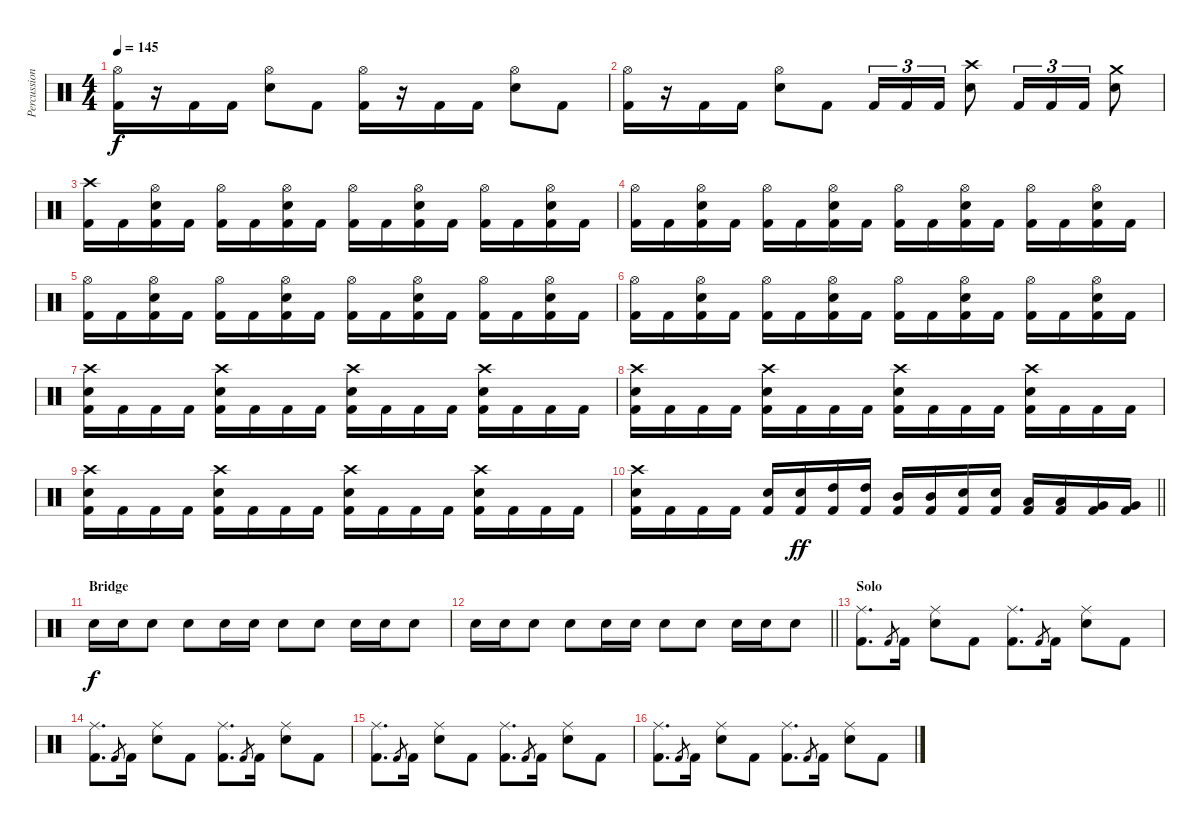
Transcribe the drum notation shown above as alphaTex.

\track ("Percussioni" "Percussion") {instrument percussion}
\staff {score}
\articulation defaults
\ts (4 4)
\tempo 145
\clef neutral
\ks c
("Hi-Hat (open)" "Kick (hit) 2").16{dy f} r.16 "Kick (hit) 2".16 "Kick (hit) 2".16 ("Hi-Hat (open)" "Snare (hit) 2").8 "Kick (hit) 2".8 ("Hi-Hat (open)" "Kick (hit) 2").16 r.16 "Kick (hit) 2".16 "Kick (hit) 2".16 ("Hi-Hat (open)" "Snare (hit) 2").8 "Kick (hit) 2".8 |
("Hi-Hat (open)" "Kick (hit) 2").16 r.16 "Kick (hit) 2".16 "Kick (hit) 2".16 ("Hi-Hat (open)" "Snare (hit) 2").8 "Kick (hit) 2".8 "Kick (hit) 2".16{tu (3 2)} "Kick (hit) 2".16{tu (3 2)} "Kick (hit) 2".16{tu (3 2)} ("Crash high (hit)" "Snare (hit) 2").8 "Kick (hit) 2".16{tu (3 2)} "Kick (hit) 2".16{tu (3 2)} "Kick (hit) 2".16{tu (3 2)} ("Crash medium (hit)" "Snare (hit) 2").8 |
("Crash high (hit)" "Kick (hit) 2").16 "Kick (hit) 2".16 ("Hi-Hat (open)" "Kick (hit) 2" "Snare (hit) 2").16 "Kick (hit) 2".16 ("Hi-Hat (open)" "Kick (hit) 2").16 "Kick (hit) 2".16 ("Hi-Hat (open)" "Kick (hit) 2" "Snare (hit) 2").16 "Kick (hit) 2".16 ("Hi-Hat (open)" "Kick (hit) 2").16 "Kick (hit) 2".16 ("Hi-Hat (open)" "Kick (hit) 2" "Snare (hit) 2").16 "Kick (hit) 2".16 ("Hi-Hat (open)" "Kick (hit) 2").16 "Kick (hit) 2".16 ("Hi-Hat (open)" "Kick (hit) 2" "Snare (hit) 2").16 "Kick (hit) 2".16 |
("Hi-Hat (open)" "Kick (hit) 2").16 "Kick (hit) 2".16 ("Hi-Hat (open)" "Kick (hit) 2" "Snare (hit) 2").16 "Kick (hit) 2".16 ("Hi-Hat (open)" "Kick (hit) 2").16 "Kick (hit) 2".16 ("Hi-Hat (open)" "Kick (hit) 2" "Snare (hit) 2").16 "Kick (hit) 2".16 ("Hi-Hat (open)" "Kick (hit) 2").16 "Kick (hit) 2".16 ("Hi-Hat (open)" "Kick (hit) 2" "Snare (hit) 2").16 "Kick (hit) 2".16 ("Hi-Hat (open)" "Kick (hit) 2").16 "Kick (hit) 2".16 ("Hi-Hat (open)" "Kick (hit) 2" "Snare (hit) 2").16 "Kick (hit) 2".16 |
("Hi-Hat (open)" "Kick (hit) 2").16 "Kick (hit) 2".16 ("Hi-Hat (open)" "Kick (hit) 2" "Snare (hit) 2").16 "Kick (hit) 2".16 ("Hi-Hat (open)" "Kick (hit) 2").16 "Kick (hit) 2".16 ("Hi-Hat (open)" "Kick (hit) 2" "Snare (hit) 2").16 "Kick (hit) 2".16 ("Hi-Hat (open)" "Kick (hit) 2").16 "Kick (hit) 2".16 ("Hi-Hat (open)" "Kick (hit) 2" "Snare (hit) 2").16 "Kick (hit) 2".16 ("Hi-Hat (open)" "Kick (hit) 2").16 "Kick (hit) 2".16 ("Hi-Hat (open)" "Kick (hit) 2" "Snare (hit) 2").16 "Kick (hit) 2".16 |
("Hi-Hat (open)" "Kick (hit) 2").16 "Kick (hit) 2".16 ("Hi-Hat (open)" "Kick (hit) 2" "Snare (hit) 2").16 "Kick (hit) 2".16 ("Hi-Hat (open)" "Kick (hit) 2").16 "Kick (hit) 2".16 ("Hi-Hat (open)" "Kick (hit) 2" "Snare (hit) 2").16 "Kick (hit) 2".16 ("Hi-Hat (open)" "Kick (hit) 2").16 "Kick (hit) 2".16 ("Hi-Hat (open)" "Kick (hit) 2" "Snare (hit) 2").16 "Kick (hit) 2".16 ("Hi-Hat (open)" "Kick (hit) 2").16 "Kick (hit) 2".16 ("Hi-Hat (open)" "Kick (hit) 2" "Snare (hit) 2").16 "Kick (hit) 2".16 |
("Crash high (hit)" "Kick (hit) 2" "Snare (hit) 2").16 "Kick (hit) 2".16 "Kick (hit) 2".16 "Kick (hit) 2".16 ("Crash high (hit)" "Kick (hit) 2" "Snare (hit) 2").16 "Kick (hit) 2".16 "Kick (hit) 2".16 "Kick (hit) 2".16 ("Crash high (hit)" "Kick (hit) 2" "Snare (hit) 2").16 "Kick (hit) 2".16 "Kick (hit) 2".16 "Kick (hit) 2".16 ("Crash high (hit)" "Kick (hit) 2" "Snare (hit) 2").16 "Kick (hit) 2".16 "Kick (hit) 2".16 "Kick (hit) 2".16 |
("Crash high (hit)" "Kick (hit) 2" "Snare (hit) 2").16 "Kick (hit) 2".16 "Kick (hit) 2".16 "Kick (hit) 2".16 ("Crash high (hit)" "Kick (hit) 2" "Snare (hit) 2").16 "Kick (hit) 2".16 "Kick (hit) 2".16 "Kick (hit) 2".16 ("Crash high (hit)" "Kick (hit) 2" "Snare (hit) 2").16 "Kick (hit) 2".16 "Kick (hit) 2".16 "Kick (hit) 2".16 ("Crash high (hit)" "Kick (hit) 2" "Snare (hit) 2").16 "Kick (hit) 2".16 "Kick (hit) 2".16 "Kick (hit) 2".16 |
("Crash high (hit)" "Kick (hit) 2" "Snare (hit) 2").16 "Kick (hit) 2".16 "Kick (hit) 2".16 "Kick (hit) 2".16 ("Crash high (hit)" "Kick (hit) 2" "Snare (hit) 2").16 "Kick (hit) 2".16 "Kick (hit) 2".16 "Kick (hit) 2".16 ("Crash high (hit)" "Kick (hit) 2" "Snare (hit) 2").16 "Kick (hit) 2".16 "Kick (hit) 2".16 "Kick (hit) 2".16 ("Crash high (hit)" "Kick (hit) 2" "Snare (hit) 2").16 "Kick (hit) 2".16 "Kick (hit) 2".16 "Kick (hit) 2".16 |
\barLineRight lightlight
("Crash high (hit)" "Kick (hit) 2" "Snare (hit) 2").16 "Kick (hit) 2".16 "Kick (hit) 2".16 "Kick (hit) 2".16 ("Kick (hit) 2" "Snare (hit) 2").16 ("Kick (hit) 2" "Snare (hit) 2").16{dy ff} ("High Tom (hit)" "Kick (hit) 2").16 ("High Tom (hit)" "Kick (hit) 2").16 ("Mid Tom (hit)" "Kick (hit) 2").16 ("Mid Tom (hit)" "Kick (hit) 2").16 ("Kick (hit) 2" "Snare (hit) 2").16 ("Kick (hit) 2" "Snare (hit) 2").16 ("Low Tom (hit)" "Kick (hit) 2").16 ("Low Tom (hit)" "Kick (hit) 2").16 ("Very Low Tom (hit)" "Kick (hit) 2").16 ("Very Low Tom (hit)" "Kick (hit) 2").16 |
\section ("" "Bridge")
"Snare (hit) 2".16{dy f} "Snare (hit) 2".16 "Snare (hit) 2".8 "Snare (hit) 2".8 "Snare (hit) 2".16 "Snare (hit) 2".16 "Snare (hit) 2".8 "Snare (hit) 2".8 "Snare (hit) 2".16 "Snare (hit) 2".16 "Snare (hit) 2".8 |
\barLineRight lightlight "Snare (hit) 2".16 "Snare (hit) 2".16 "Snare (hit) 2".8 "Snare (hit) 2".8 "Snare (hit) 2".16 "Snare (hit) 2".16 "Snare (hit) 2".8 "Snare (hit) 2".8 "Snare (hit) 2".16 "Snare (hit) 2".16 "Snare (hit) 2".8
|
\section ("" "Solo")
("Ride (middle)" "Kick (hit) 2").8{d} "Kick (hit) 2".8{gr} "Kick (hit) 2".16 ("Ride (middle)" "Snare (hit) 2").8 "Kick (hit) 2".8 ("Ride (middle)" "Kick (hit) 2").8{d} "Kick (hit) 2".8{gr} "Kick (hit) 2".16 ("Ride (middle)" "Snare (hit) 2").8 "Kick (hit) 2".8 |
("Ride (middle)" "Kick (hit) 2").8{d} "Kick (hit) 2".8{gr} "Kick (hit) 2".16 ("Ride (middle)" "Snare (hit) 2").8 "Kick (hit) 2".8 ("Ride (middle)" "Kick (hit) 2").8{d} "Kick (hit) 2".8{gr} "Kick (hit) 2".16 ("Ride (middle)" "Snare (hit) 2").8 "Kick (hit) 2".8 |
("Ride (middle)" "Kick (hit) 2").8{d} "Kick (hit) 2".8{gr} "Kick (hit) 2".16 ("Ride (middle)" "Snare (hit) 2").8 "Kick (hit) 2".8 ("Ride (middle)" "Kick (hit) 2").8{d} "Kick (hit) 2".8{gr} "Kick (hit) 2".16 ("Ride (middle)" "Snare (hit) 2").8 "Kick (hit) 2".8 |
("Ride (middle)" "Kick (hit) 2").8{d} "Kick (hit) 2".8{gr} "Kick (hit) 2".16 ("Ride (middle)" "Snare (hit) 2").8 "Kick (hit) 2".8 ("Ride (middle)" "Kick (hit) 2").8{d} "Kick (hit) 2".8{gr} "Kick (hit) 2".16 ("Ride (middle)" "Snare (hit) 2").8 "Kick (hit) 2".8
